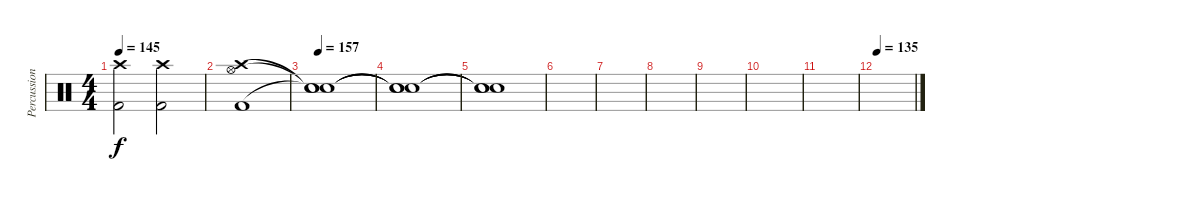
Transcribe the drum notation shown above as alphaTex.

\track ("Percussion" "Percussion") {instrument percussion}
\staff {score}
\articulation defaults
\ts (4 4)
\tempo 145
\clef neutral
\ks c
("Crash high (hit)"{t} "Kick (hit) 2"{t}).2{dy f} ("Crash high (hit)" "Kick (hit) 2").2 |
("Crash high (hit)" "Hi-Hat (open)" "Kick (hit) 2").1 |
\tempo 157
("Snare (hit)"{t} "Snare (hit)"{t} "Snare (hit)"{t}).1 |
("Snare (hit)"{t} "Snare (hit)"{t} "Snare (hit)"{t}).1 |
("Snare (hit)"{t} "Snare (hit)"{t} "Snare (hit)"{t}).1 |
|
|
|
|
|
|
\tempo 135
